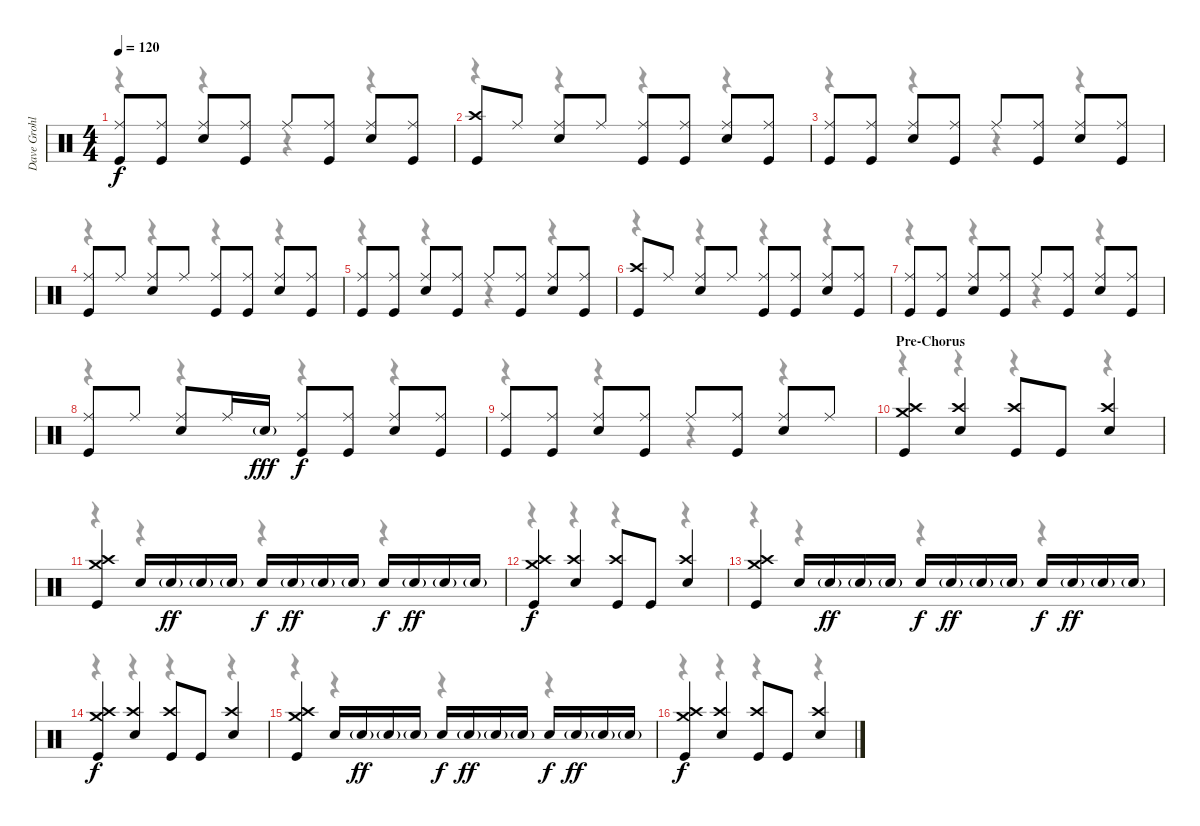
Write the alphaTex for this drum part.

\track ("Dave Grohl" "Dave Grohl") {instrument percussion}
\staff {score}
\articulation defaults
\voice
\ts (4 4)
\tempo 120
\clef neutral
\ks c
("Ride (middle)" "Kick (hit)").8{dy f} ("Ride (middle)" "Kick (hit)").8 ("Ride (middle)" "Snare (hit) 2").8 ("Ride (middle)" "Kick (hit)").8 "Ride (middle)".8 ("Ride (middle)" "Kick (hit)").8 ("Ride (middle)" "Snare (hit) 2").8 ("Ride (middle)" "Kick (hit)").8 |
("Crash high (hit)" "Kick (hit)").8 "Ride (middle)".8 ("Ride (middle)" "Snare (hit) 2").8 "Ride (middle)".8 ("Ride (middle)" "Kick (hit)").8 ("Ride (middle)" "Kick (hit)").8 ("Ride (middle)" "Snare (hit) 2").8 ("Ride (middle)" "Kick (hit)").8 |
("Ride (middle)" "Kick (hit)").8 ("Ride (middle)" "Kick (hit)").8 ("Ride (middle)" "Snare (hit) 2").8 ("Ride (middle)" "Kick (hit)").8 "Ride (middle)".8 ("Ride (middle)" "Kick (hit)").8 ("Ride (middle)" "Snare (hit) 2").8 ("Ride (middle)" "Kick (hit)").8 |
("Ride (middle)" "Kick (hit)").8 "Ride (middle)".8 ("Ride (middle)" "Snare (hit) 2").8 "Ride (middle)".8 ("Ride (middle)" "Kick (hit)").8 ("Ride (middle)" "Kick (hit)").8 ("Ride (middle)" "Snare (hit) 2").8 ("Ride (middle)" "Kick (hit)").8 |
("Ride (middle)" "Kick (hit)").8 ("Ride (middle)" "Kick (hit)").8 ("Ride (middle)" "Snare (hit) 2").8 ("Ride (middle)" "Kick (hit)").8 "Ride (middle)".8 ("Ride (middle)" "Kick (hit)").8 ("Ride (middle)" "Snare (hit) 2").8 ("Ride (middle)" "Kick (hit)").8 |
("Crash high (hit)" "Kick (hit)").8 "Ride (middle)".8 ("Ride (middle)" "Snare (hit) 2").8 "Ride (middle)".8 ("Ride (middle)" "Kick (hit)").8 ("Ride (middle)" "Kick (hit)").8 ("Ride (middle)" "Snare (hit) 2").8 ("Ride (middle)" "Kick (hit)").8 |
("Ride (middle)" "Kick (hit)").8 ("Ride (middle)" "Kick (hit)").8 ("Ride (middle)" "Snare (hit) 2").8 ("Ride (middle)" "Kick (hit)").8 "Ride (middle)".8 ("Ride (middle)" "Kick (hit)").8 ("Ride (middle)" "Snare (hit) 2").8 ("Ride (middle)" "Kick (hit)").8 |
("Ride (middle)" "Kick (hit)").8 "Ride (middle)".8 ("Ride (middle)" "Snare (hit) 2").8 "Ride (middle)".16 "Snare (hit) 2"{g}.16{dy fff} ("Ride (middle)" "Kick (hit)").8{dy f} ("Ride (middle)" "Kick (hit)").8 ("Ride (middle)" "Snare (hit) 2").8 ("Ride (middle)" "Kick (hit)").8 |
("Ride (middle)" "Kick (hit)").8 ("Ride (middle)" "Kick (hit)").8 ("Ride (middle)" "Snare (hit) 2").8 ("Ride (middle)" "Kick (hit)").8 "Ride (middle)".8 ("Ride (middle)" "Kick (hit)").8 ("Ride (middle)" "Snare (hit) 2").8 "Ride (middle)".8 |
\section ("" "Pre-Chorus")
("Crash medium (hit)" "Crash high (hit)" "Kick (hit)").4 ("Crash high (hit)" "Snare (hit) 2").4 ("Crash high (hit)" "Kick (hit)").8 "Kick (hit)".8 ("Crash high (hit)" "Snare (hit) 2").4 |
("Crash medium (hit)" "Crash high (hit)" "Kick (hit)").4 "Snare (hit) 2".16 "Snare (hit) 2"{g}.16{dy ff} "Snare (hit) 2"{g}.16 "Snare (hit) 2"{g}.16 "Snare (hit) 2".16{dy f} "Snare (hit) 2"{g}.16{dy ff} "Snare (hit) 2"{g}.16 "Snare (hit) 2"{g}.16 "Snare (hit) 2".16{dy f} "Snare (hit) 2"{g}.16{dy ff} "Snare (hit) 2"{g}.16 "Snare (hit) 2"{g}.16 |
("Crash medium (hit)" "Crash high (hit)" "Kick (hit)").4{dy f} ("Crash high (hit)" "Snare (hit) 2").4 ("Crash high (hit)" "Kick (hit)").8 "Kick (hit)".8 ("Crash high (hit)" "Snare (hit) 2").4 |
("Crash medium (hit)" "Crash high (hit)" "Kick (hit)").4 "Snare (hit) 2".16 "Snare (hit) 2"{g}.16{dy ff} "Snare (hit) 2"{g}.16 "Snare (hit) 2"{g}.16 "Snare (hit) 2".16{dy f} "Snare (hit) 2"{g}.16{dy ff} "Snare (hit) 2"{g}.16 "Snare (hit) 2"{g}.16 "Snare (hit) 2".16{dy f} "Snare (hit) 2"{g}.16{dy ff} "Snare (hit) 2"{g}.16 "Snare (hit) 2"{g}.16 |
("Crash medium (hit)" "Crash high (hit)" "Kick (hit)").4{dy f} ("Crash high (hit)" "Snare (hit) 2").4 ("Crash high (hit)" "Kick (hit)").8 "Kick (hit)".8 ("Crash high (hit)" "Snare (hit) 2").4 |
("Crash medium (hit)" "Crash high (hit)" "Kick (hit)").4 "Snare (hit) 2".16 "Snare (hit) 2"{g}.16{dy ff} "Snare (hit) 2"{g}.16 "Snare (hit) 2"{g}.16 "Snare (hit) 2".16{dy f} "Snare (hit) 2"{g}.16{dy ff} "Snare (hit) 2"{g}.16 "Snare (hit) 2"{g}.16 "Snare (hit) 2".16{dy f} "Snare (hit) 2"{g}.16{dy ff} "Snare (hit) 2"{g}.16 "Snare (hit) 2"{g}.16 |
("Crash medium (hit)" "Crash high (hit)" "Kick (hit)").4{dy f} ("Crash high (hit)" "Snare (hit) 2").4 ("Crash high (hit)" "Kick (hit)").8 "Kick (hit)".8 ("Crash high (hit)" "Snare (hit) 2").4
\voice
\clef neutral
\ottava regular
\simile none
\ks c
r.4{dy f} r.4 r.4 r.4 |
r.4 r.4 r.4 r.4 |
r.4 r.4 r.4 r.4 |
r.4 r.4 r.4 r.4 |
r.4 r.4 r.4 r.4 |
r.4 r.4 r.4 r.4 |
r.4 r.4 r.4 r.4 |
r.4 r.4 r.4 r.4 |
r.4 r.4 r.4 r.4 |
r.4 r.4 r.4 r.4 |
r.4 r.4 r.4 r.4 |
r.4 r.4 r.4 r.4 |
r.4 r.4 r.4 r.4 |
r.4 r.4 r.4 r.4 |
r.4 r.4 r.4 r.4 |
r.4 r.4 r.4 r.4
